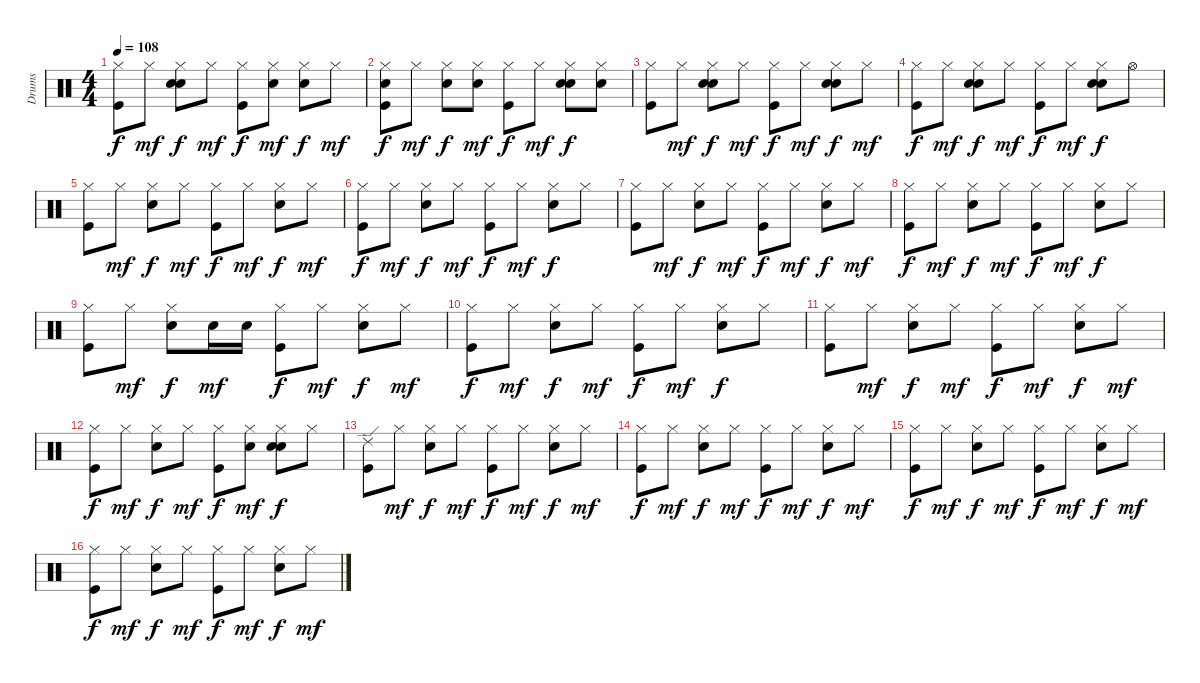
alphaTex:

\track ("Drums" "Drums") {instrument percussion}
\staff {score}
\articulation defaults
\ts (4 4)
\tempo 108
\clef neutral
\ks c
("Hi-Hat (closed)" "Kick (hit)").8{dy f} "Hi-Hat (closed)".8{dy mf} ("Hi-Hat (closed)" "Hand Clap (hit)" "Electric Snare (hit)").8{dy f} "Hi-Hat (closed)".8{dy mf} ("Hi-Hat (closed)" "Kick (hit)").8{dy f} ("Hi-Hat (closed)" "Hand Clap (hit)").8{dy mf} ("Hi-Hat (closed)" "Electric Snare (hit)").8{dy f} "Hi-Hat (closed)".8{dy mf} |
("Hi-Hat (closed)" "Hand Clap (hit)" "Kick (hit)").8{dy f} "Hi-Hat (closed)".8{dy mf} ("Hi-Hat (closed)" "Electric Snare (hit)").8{dy f} ("Hi-Hat (closed)" "Hand Clap (hit)").8{dy mf} ("Hi-Hat (closed)" "Kick (hit)").8{dy f} "Hi-Hat (closed)".8{dy mf} ("Hi-Hat (closed)" "Hand Clap (hit)" "Electric Snare (hit)").8{dy f} ("Hi-Hat (closed)" "Hand Clap (hit)").8 |
("Hi-Hat (closed)" "Kick (hit)").8 "Hi-Hat (closed)".8{dy mf} ("Hi-Hat (closed)" "Hand Clap (hit)" "Electric Snare (hit)").8{dy f} "Hi-Hat (closed)".8{dy mf} ("Hi-Hat (closed)" "Kick (hit)").8{dy f} "Hi-Hat (closed)".8{dy mf} ("Hi-Hat (closed)" "Hand Clap (hit)" "Electric Snare (hit)").8{dy f} "Hi-Hat (closed)".8{dy mf} |
("Hi-Hat (closed)" "Kick (hit)").8{dy f} "Hi-Hat (closed)".8{dy mf} ("Hi-Hat (closed)" "Hand Clap (hit)" "Electric Snare (hit)").8{dy f} "Hi-Hat (closed)".8{dy mf} ("Hi-Hat (closed)" "Kick (hit)").8{dy f} "Hi-Hat (closed)".8{dy mf} ("Hi-Hat (closed)" "Hand Clap (hit)" "Electric Snare (hit)").8{dy f} "Hi-Hat (open)".8 |
("Hi-Hat (closed)" "Kick (hit)").8{volume 10} "Hi-Hat (closed)".8{dy mf} ("Hi-Hat (closed)" "Electric Snare (hit)").8{dy f} "Hi-Hat (closed)".8{dy mf} ("Hi-Hat (closed)" "Kick (hit)").8{dy f} "Hi-Hat (closed)".8{dy mf} ("Hi-Hat (closed)" "Electric Snare (hit)").8{dy f} "Hi-Hat (closed)".8{dy mf} |
("Hi-Hat (closed)" "Kick (hit)").8{dy f} "Hi-Hat (closed)".8{dy mf} ("Hi-Hat (closed)" "Electric Snare (hit)").8{dy f} "Hi-Hat (closed)".8{dy mf} ("Hi-Hat (closed)" "Kick (hit)").8{dy f} "Hi-Hat (closed)".8{dy mf} ("Hi-Hat (closed)" "Electric Snare (hit)").8{dy f} "Hi-Hat (closed)".8 |
("Hi-Hat (closed)" "Kick (hit)").8 "Hi-Hat (closed)".8{dy mf} ("Hi-Hat (closed)" "Electric Snare (hit)").8{dy f} "Hi-Hat (closed)".8{dy mf} ("Hi-Hat (closed)" "Kick (hit)").8{dy f} "Hi-Hat (closed)".8{dy mf} ("Hi-Hat (closed)" "Electric Snare (hit)").8{dy f} "Hi-Hat (closed)".8{dy mf} |
("Hi-Hat (closed)" "Kick (hit)").8{dy f} "Hi-Hat (closed)".8{dy mf} ("Hi-Hat (closed)" "Electric Snare (hit)").8{dy f} "Hi-Hat (closed)".8{dy mf} ("Hi-Hat (closed)" "Kick (hit)").8{dy f} "Hi-Hat (closed)".8{dy mf} ("Hi-Hat (closed)" "Electric Snare (hit)").8{dy f} "Hi-Hat (closed)".8 |
("Hi-Hat (closed)" "Kick (hit)").8{volume 7} "Hi-Hat (closed)".8{dy mf} ("Hi-Hat (closed)" "Electric Snare (hit)").8{dy f} "Electric Snare (hit)".16{dy mf} "Electric Snare (hit)".16 ("Hi-Hat (closed)" "Kick (hit)").8{dy f} "Hi-Hat (closed)".8{dy mf} ("Hi-Hat (closed)" "Electric Snare (hit)").8{dy f} "Hi-Hat (closed)".8{dy mf} |
("Hi-Hat (closed)" "Kick (hit)").8{dy f} "Hi-Hat (closed)".8{dy mf} ("Hi-Hat (closed)" "Electric Snare (hit)").8{dy f} "Hi-Hat (closed)".8{dy mf} ("Hi-Hat (closed)" "Kick (hit)").8{dy f} "Hi-Hat (closed)".8{dy mf} ("Hi-Hat (closed)" "Electric Snare (hit)").8{dy f} "Hi-Hat (closed)".8 |
("Hi-Hat (closed)" "Kick (hit)").8 "Hi-Hat (closed)".8{dy mf} ("Hi-Hat (closed)" "Electric Snare (hit)").8{dy f} "Hi-Hat (closed)".8{dy mf} ("Hi-Hat (closed)" "Kick (hit)").8{dy f} "Hi-Hat (closed)".8{dy mf} ("Hi-Hat (closed)" "Electric Snare (hit)").8{dy f} "Hi-Hat (closed)".8{dy mf} |
("Hi-Hat (closed)" "Kick (hit)").8{dy f} "Hi-Hat (closed)".8{dy mf} ("Hi-Hat (closed)" "Electric Snare (hit)").8{dy f} "Hi-Hat (closed)".8{dy mf} ("Hi-Hat (closed)" "Kick (hit)").8{dy f} ("Hi-Hat (closed)" "Hand Clap (hit)").8{dy mf} ("Hi-Hat (closed)" "Hand Clap (hit)" "Electric Snare (hit)").8{dy f} "Hi-Hat (closed)".8 |
("Ride (edge) 2" "Kick (hit)").8{volume 3} "Hi-Hat (closed)".8{dy mf} ("Hi-Hat (closed)" "Electric Snare (hit)").8{dy f} "Hi-Hat (closed)".8{dy mf} ("Hi-Hat (closed)" "Kick (hit)").8{dy f} "Hi-Hat (closed)".8{dy mf} ("Hi-Hat (closed)" "Electric Snare (hit)").8{dy f} "Hi-Hat (closed)".8{dy mf} |
("Hi-Hat (closed)" "Kick (hit)").8{dy f} "Hi-Hat (closed)".8{dy mf} ("Hi-Hat (closed)" "Electric Snare (hit)").8{dy f} "Hi-Hat (closed)".8{dy mf} ("Hi-Hat (closed)" "Kick (hit)").8{dy f} "Hi-Hat (closed)".8{dy mf} ("Hi-Hat (closed)" "Electric Snare (hit)").8{dy f} "Hi-Hat (closed)".8{dy mf} |
("Hi-Hat (closed)" "Kick (hit)").8{dy f} "Hi-Hat (closed)".8{dy mf} ("Hi-Hat (closed)" "Electric Snare (hit)").8{dy f} "Hi-Hat (closed)".8{dy mf} ("Hi-Hat (closed)" "Kick (hit)").8{dy f} "Hi-Hat (closed)".8{dy mf} ("Hi-Hat (closed)" "Electric Snare (hit)").8{dy f} "Hi-Hat (closed)".8{dy mf} |
("Hi-Hat (closed)" "Kick (hit)").8{dy f} "Hi-Hat (closed)".8{dy mf} ("Hi-Hat (closed)" "Electric Snare (hit)").8{dy f} "Hi-Hat (closed)".8{dy mf} ("Hi-Hat (closed)" "Kick (hit)").8{dy f} "Hi-Hat (closed)".8{dy mf} ("Hi-Hat (closed)" "Electric Snare (hit)").8{dy f} "Hi-Hat (closed)".8{dy mf}
